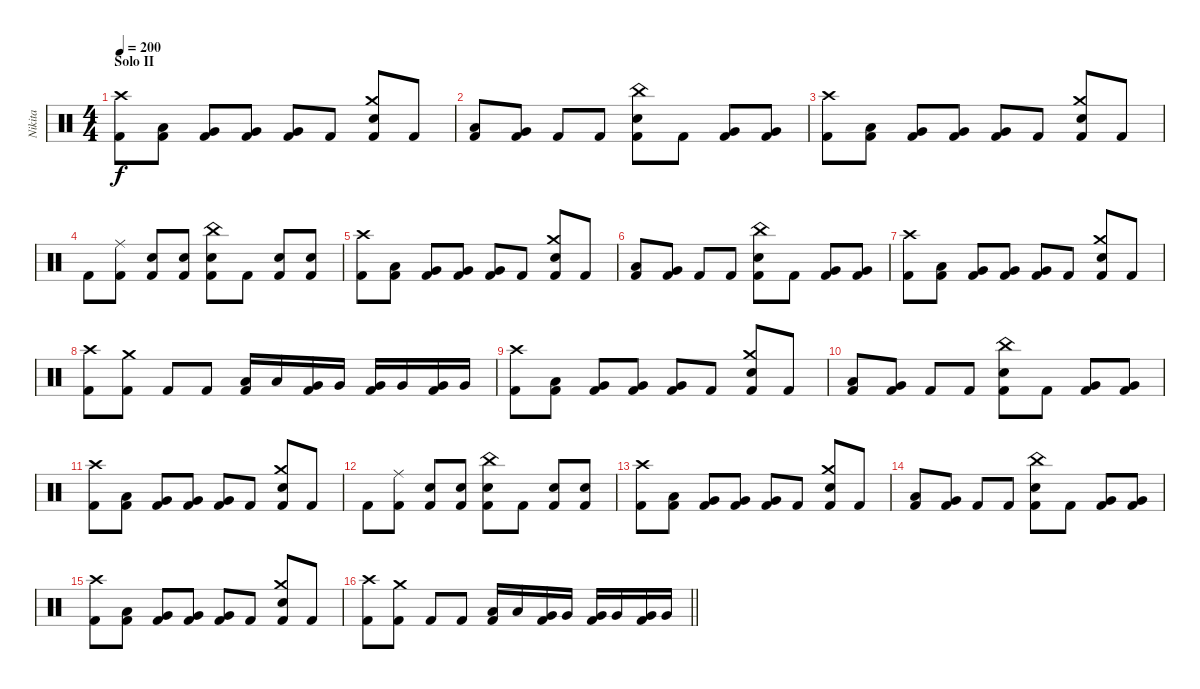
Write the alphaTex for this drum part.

\track ("Nikita" "Nikita") {instrument percussion}
\staff {score}
\articulation defaults
\ts (4 4)
\section ("" "Solo II")
\tempo 200
\clef neutral
\ks c
("Crash high (hit)" "Kick (hit) 2").8{dy f} ("Low Tom (hit)" "Kick (hit) 2").8 ("Very Low Tom (hit)" "Kick (hit) 2").8 ("Very Low Tom (hit)" "Kick (hit) 2").8 ("Very Low Tom (hit)" "Kick (hit) 2").8 "Kick (hit) 2".8 ("Crash medium (hit)" "Electric Snare (hit)" "Kick (hit) 2").8 "Kick (hit) 2".8 |
("Low Tom (hit)" "Kick (hit) 2").8 ("Very Low Tom (hit)" "Kick (hit) 2").8 "Kick (hit) 2".8 "Kick (hit) 2".8 ("China (hit)" "Electric Snare (hit)" "Kick (hit) 2").8 "Kick (hit) 2".8 ("Very Low Tom (hit)" "Kick (hit) 2").8 ("Very Low Tom (hit)" "Kick (hit) 2").8 |
("Crash high (hit)" "Kick (hit) 2").8 ("Low Tom (hit)" "Kick (hit) 2").8 ("Very Low Tom (hit)" "Kick (hit) 2").8 ("Very Low Tom (hit)" "Kick (hit) 2").8 ("Very Low Tom (hit)" "Kick (hit) 2").8 "Kick (hit) 2".8 ("Crash medium (hit)" "Electric Snare (hit)" "Kick (hit) 2").8 "Kick (hit) 2".8 |
"Kick (hit) 2".8 ("Ride (middle)" "Kick (hit) 2").8 ("Metronome (bell)" "Kick (hit) 2").8 ("Electric Snare (hit)" "Kick (hit) 2").8 ("China (hit)" "Electric Snare (hit)" "Kick (hit) 2").8 "Kick (hit) 2".8 ("Electric Snare (hit)" "Kick (hit) 2").8 ("Electric Snare (hit)" "Kick (hit) 2").8 |
("Crash high (hit)" "Kick (hit) 2").8 ("Low Tom (hit)" "Kick (hit) 2").8 ("Very Low Tom (hit)" "Kick (hit) 2").8 ("Very Low Tom (hit)" "Kick (hit) 2").8 ("Very Low Tom (hit)" "Kick (hit) 2").8 "Kick (hit) 2".8 ("Crash medium (hit)" "Electric Snare (hit)" "Kick (hit) 2").8 "Kick (hit) 2".8 |
("Low Tom (hit)" "Kick (hit) 2").8 ("Very Low Tom (hit)" "Kick (hit) 2").8 "Kick (hit) 2".8 "Kick (hit) 2".8 ("China (hit)" "Electric Snare (hit)" "Kick (hit) 2").8 "Kick (hit) 2".8 ("Very Low Tom (hit)" "Kick (hit) 2").8 ("Very Low Tom (hit)" "Kick (hit) 2").8 |
("Crash high (hit)" "Kick (hit) 2").8 ("Low Tom (hit)" "Kick (hit) 2").8 ("Very Low Tom (hit)" "Kick (hit) 2").8 ("Very Low Tom (hit)" "Kick (hit) 2").8 ("Very Low Tom (hit)" "Kick (hit) 2").8 "Kick (hit) 2".8 ("Crash medium (hit)" "Electric Snare (hit)" "Kick (hit) 2").8 "Kick (hit) 2".8 |
("Crash high (hit)" "Kick (hit) 2").8 ("Crash medium (hit)" "Kick (hit) 2").8 "Kick (hit) 2".8 "Kick (hit) 2".8 ("Low Tom (hit)" "Kick (hit) 2").16 "Low Tom (hit)".16 ("Very Low Tom (hit)" "Kick (hit) 2").16 "Very Low Tom (hit)".16 ("Very Low Tom (hit)" "Kick (hit) 2").16 "Very Low Tom (hit)".16 ("Very Low Tom (hit)" "Kick (hit) 2").16 "Very Low Tom (hit)".16 |
("Crash high (hit)" "Kick (hit) 2").8 ("Low Tom (hit)" "Kick (hit) 2").8 ("Very Low Tom (hit)" "Kick (hit) 2").8 ("Very Low Tom (hit)" "Kick (hit) 2").8 ("Very Low Tom (hit)" "Kick (hit) 2").8 "Kick (hit) 2".8 ("Crash medium (hit)" "Electric Snare (hit)" "Kick (hit) 2").8 "Kick (hit) 2".8 |
("Low Tom (hit)" "Kick (hit) 2").8 ("Very Low Tom (hit)" "Kick (hit) 2").8 "Kick (hit) 2".8 "Kick (hit) 2".8 ("China (hit)" "Electric Snare (hit)" "Kick (hit) 2").8 "Kick (hit) 2".8 ("Very Low Tom (hit)" "Kick (hit) 2").8 ("Very Low Tom (hit)" "Kick (hit) 2").8 |
("Crash high (hit)" "Kick (hit) 2").8 ("Low Tom (hit)" "Kick (hit) 2").8 ("Very Low Tom (hit)" "Kick (hit) 2").8 ("Very Low Tom (hit)" "Kick (hit) 2").8 ("Very Low Tom (hit)" "Kick (hit) 2").8 "Kick (hit) 2".8 ("Crash medium (hit)" "Electric Snare (hit)" "Kick (hit) 2").8 "Kick (hit) 2".8 |
"Kick (hit) 2".8 ("Ride (middle)" "Kick (hit) 2").8 ("Metronome (bell)" "Kick (hit) 2").8 ("Electric Snare (hit)" "Kick (hit) 2").8 ("China (hit)" "Electric Snare (hit)" "Kick (hit) 2").8 "Kick (hit) 2".8 ("Electric Snare (hit)" "Kick (hit) 2").8 ("Electric Snare (hit)" "Kick (hit) 2").8 |
("Crash high (hit)" "Kick (hit) 2").8 ("Low Tom (hit)" "Kick (hit) 2").8 ("Very Low Tom (hit)" "Kick (hit) 2").8 ("Very Low Tom (hit)" "Kick (hit) 2").8 ("Very Low Tom (hit)" "Kick (hit) 2").8 "Kick (hit) 2".8 ("Crash medium (hit)" "Electric Snare (hit)" "Kick (hit) 2").8 "Kick (hit) 2".8 |
("Low Tom (hit)" "Kick (hit) 2").8 ("Very Low Tom (hit)" "Kick (hit) 2").8 "Kick (hit) 2".8 "Kick (hit) 2".8 ("China (hit)" "Electric Snare (hit)" "Kick (hit) 2").8 "Kick (hit) 2".8 ("Very Low Tom (hit)" "Kick (hit) 2").8 ("Very Low Tom (hit)" "Kick (hit) 2").8 |
("Crash high (hit)" "Kick (hit) 2").8 ("Low Tom (hit)" "Kick (hit) 2").8 ("Very Low Tom (hit)" "Kick (hit) 2").8 ("Very Low Tom (hit)" "Kick (hit) 2").8 ("Very Low Tom (hit)" "Kick (hit) 2").8 "Kick (hit) 2".8 ("Crash medium (hit)" "Electric Snare (hit)" "Kick (hit) 2").8 "Kick (hit) 2".8 |
\barLineRight lightlight
("Crash high (hit)" "Kick (hit) 2").8 ("Crash medium (hit)" "Kick (hit) 2").8 "Kick (hit) 2".8 "Kick (hit) 2".8 ("Low Tom (hit)" "Kick (hit) 2").16 "Low Tom (hit)".16 ("Very Low Tom (hit)" "Kick (hit) 2").16 "Very Low Tom (hit)".16 ("Very Low Tom (hit)" "Kick (hit) 2").16 "Very Low Tom (hit)".16 ("Very Low Tom (hit)" "Kick (hit) 2").16 "Very Low Tom (hit)".16
